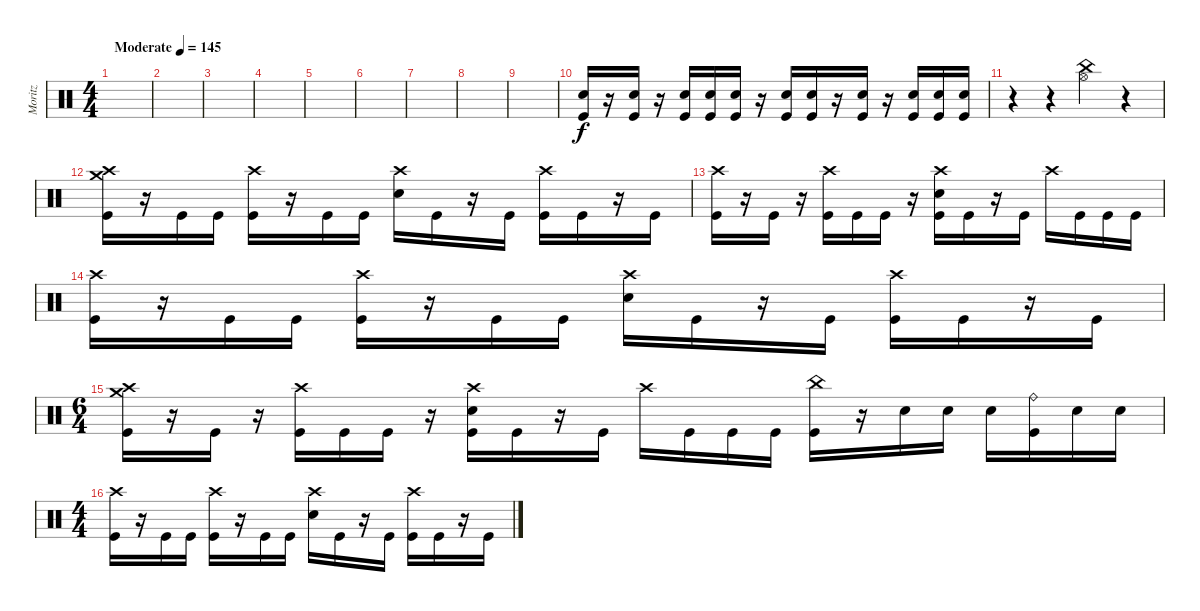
\track ("Moritz" "Moritz") {instrument percussion}
\staff {score}
\articulation defaults
\ts (4 4)
\tempo (145 "Moderate")
\clef neutral
\ks c
|
|
|
|
|
|
|
|
|
("Snare (hit) 2" "Kick (hit)").16 r.16 ("Snare (hit) 2" "Kick (hit)").16 r.16 ("Snare (hit) 2" "Kick (hit)").16 ("Snare (hit) 2" "Kick (hit)").16 ("Snare (hit) 2" "Kick (hit)").16 r.16 ("Snare (hit) 2" "Kick (hit)").16 ("Snare (hit) 2" "Kick (hit)").16 r.16 ("Snare (hit) 2" "Kick (hit)").16 r.16 ("Snare (hit) 2" "Kick (hit)").16 ("Snare (hit) 2" "Kick (hit)").16 ("Snare (hit) 2" "Kick (hit)").16 |
r.4 r.4 ("Hi-Hat (open)" "China (hit)").4 r.4 |
("Crash medium (hit)" "Crash high (hit)" "Kick (hit)").16 r.16 "Kick (hit)".16 "Kick (hit)".16 ("Crash high (hit)" "Kick (hit)").16 r.16 "Kick (hit)".16 "Kick (hit)".16 ("Crash high (hit)" "Snare (hit) 2").16 "Kick (hit)".16 r.16 "Kick (hit)".16 ("Crash high (hit)" "Kick (hit)").16 "Kick (hit)".16 r.16 "Kick (hit)".16 |
("Crash high (hit)" "Kick (hit)").16 r.16 "Kick (hit)".16 r.16 ("Crash high (hit)" "Kick (hit)").16 "Kick (hit)".16 "Kick (hit)".16 r.16 ("Crash high (hit)" "Snare (hit) 2" "Kick (hit)").16 "Kick (hit)".16 r.16 "Kick (hit)".16 "Crash high (hit)".16 "Kick (hit)".16 "Kick (hit)".16 "Kick (hit)".16 |
("Crash high (hit)" "Kick (hit)").16 r.16 "Kick (hit)".16 "Kick (hit)".16 ("Crash high (hit)" "Kick (hit)").16 r.16 "Kick (hit)".16 "Kick (hit)".16 ("Crash high (hit)" "Snare (hit) 2").16 "Kick (hit)".16 r.16 "Kick (hit)".16 ("Crash high (hit)" "Kick (hit)").16 "Kick (hit)".16 r.16 "Kick (hit)".16 |
\ts (6 4)
("Crash medium (hit)" "Crash high (hit)" "Kick (hit)").16 r.16 "Kick (hit)".16 r.16 ("Crash high (hit)" "Kick (hit)").16 "Kick (hit)".16 "Kick (hit)".16 r.16 ("Crash high (hit)" "Snare (hit) 2" "Kick (hit)").16 "Kick (hit)".16 r.16 "Kick (hit)".16 "Crash high (hit)".16 "Kick (hit)".16 "Kick (hit)".16 "Kick (hit)".16 ("China (hit)" "Kick (hit)").16 r.16 "Snare (hit) 2".16 "Snare (hit) 2".16 "Snare (hit) 2".16 ("Ride (bell)" "Kick (hit)").16 "Snare (hit) 2".16 "Snare (hit) 2".16 |
\ts (4 4)
("Crash high (hit)" "Kick (hit)").16 r.16 "Kick (hit)".16 "Kick (hit)".16 ("Crash high (hit)" "Kick (hit)").16 r.16 "Kick (hit)".16 "Kick (hit)".16 ("Crash high (hit)" "Snare (hit) 2").16 "Kick (hit)".16 r.16 "Kick (hit)".16 ("Crash high (hit)" "Kick (hit)").16 "Kick (hit)".16 r.16 "Kick (hit)".16
